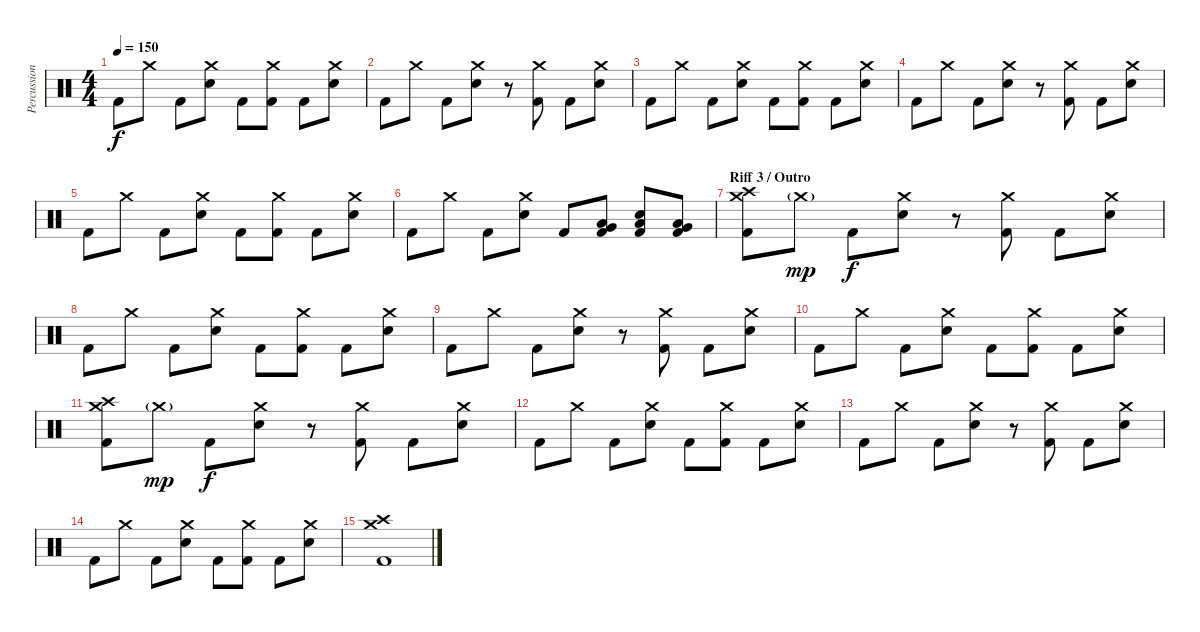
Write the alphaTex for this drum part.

\track ("Percussion" "Percussion") {instrument percussion}
\staff {score}
\articulation defaults
\ts (4 4)
\tempo 150
\clef neutral
\ks c "Kick (hit) 2".8{dy f} "Crash medium (hit)".8 "Kick (hit) 2".8
("Crash medium (hit)" "Electric Snare (hit)").8 "Kick (hit) 2".8 ("Crash medium (hit)" "Kick (hit) 2").8 "Kick (hit) 2".8 ("Crash medium (hit)" "Electric Snare (hit)").8 |
"Kick (hit) 2".8 "Crash medium (hit)".8 "Kick (hit) 2".8 ("Crash medium (hit)" "Electric Snare (hit)").8 r.8 ("Crash medium (hit)" "Kick (hit) 2").8 "Kick (hit) 2".8 ("Crash medium (hit)" "Electric Snare (hit)").8 |
"Kick (hit) 2".8 "Crash medium (hit)".8 "Kick (hit) 2".8 ("Crash medium (hit)" "Electric Snare (hit)").8 "Kick (hit) 2".8 ("Crash medium (hit)" "Kick (hit) 2").8 "Kick (hit) 2".8 ("Crash medium (hit)" "Electric Snare (hit)").8 |
"Kick (hit) 2".8 "Crash medium (hit)".8 "Kick (hit) 2".8 ("Crash medium (hit)" "Electric Snare (hit)").8 r.8 ("Crash medium (hit)" "Kick (hit) 2").8 "Kick (hit) 2".8 ("Crash medium (hit)" "Electric Snare (hit)").8 |
"Kick (hit) 2".8 "Crash medium (hit)".8 "Kick (hit) 2".8 ("Crash medium (hit)" "Electric Snare (hit)").8 "Kick (hit) 2".8 ("Crash medium (hit)" "Kick (hit) 2").8 "Kick (hit) 2".8 ("Crash medium (hit)" "Electric Snare (hit)").8 |
"Kick (hit) 2".8 "Crash medium (hit)".8 "Kick (hit) 2".8 ("Crash medium (hit)" "Electric Snare (hit)").8 "Kick (hit) 2".8 ("Very Low Tom (hit)" "Low Floor Tom (hit)" "Kick (hit) 2").8 ("Electric Snare (hit)" "Low Floor Tom (hit)" "Kick (hit) 2").8 ("Very Low Tom (hit)" "Low Floor Tom (hit)" "Kick (hit) 2").8 |
\section ("" "Riff 3 / Outro")
("Crash medium (hit)" "Crash high (hit)" "Kick (hit) 2").8 "Crash medium (hit)"{g}.8{dy mp} "Kick (hit) 2".8{dy f} ("Crash medium (hit)" "Electric Snare (hit)").8 r.8 ("Crash medium (hit)" "Kick (hit) 2").8 "Kick (hit) 2".8 ("Crash medium (hit)" "Electric Snare (hit)").8 |
"Kick (hit) 2".8 "Crash medium (hit)".8 "Kick (hit) 2".8 ("Crash medium (hit)" "Electric Snare (hit)").8 "Kick (hit) 2".8 ("Crash medium (hit)" "Kick (hit) 2").8 "Kick (hit) 2".8 ("Crash medium (hit)" "Electric Snare (hit)").8 |
"Kick (hit) 2".8 "Crash medium (hit)".8 "Kick (hit) 2".8 ("Crash medium (hit)" "Electric Snare (hit)").8 r.8 ("Crash medium (hit)" "Kick (hit) 2").8 "Kick (hit) 2".8 ("Crash medium (hit)" "Electric Snare (hit)").8 |
"Kick (hit) 2".8 "Crash medium (hit)".8 "Kick (hit) 2".8 ("Crash medium (hit)" "Electric Snare (hit)").8 "Kick (hit) 2".8 ("Crash medium (hit)" "Kick (hit) 2").8 "Kick (hit) 2".8 ("Crash medium (hit)" "Electric Snare (hit)").8 |
("Crash medium (hit)" "Crash high (hit)" "Kick (hit) 2").8 "Crash medium (hit)"{g}.8{dy mp} "Kick (hit) 2".8{dy f} ("Crash medium (hit)" "Electric Snare (hit)").8 r.8 ("Crash medium (hit)" "Kick (hit) 2").8 "Kick (hit) 2".8 ("Crash medium (hit)" "Electric Snare (hit)").8 |
"Kick (hit) 2".8 "Crash medium (hit)".8 "Kick (hit) 2".8 ("Crash medium (hit)" "Electric Snare (hit)").8 "Kick (hit) 2".8 ("Crash medium (hit)" "Kick (hit) 2").8 "Kick (hit) 2".8 ("Crash medium (hit)" "Electric Snare (hit)").8 |
"Kick (hit) 2".8 "Crash medium (hit)".8 "Kick (hit) 2".8 ("Crash medium (hit)" "Electric Snare (hit)").8 r.8 ("Crash medium (hit)" "Kick (hit) 2").8 "Kick (hit) 2".8 ("Crash medium (hit)" "Electric Snare (hit)").8 |
"Kick (hit) 2".8 "Crash medium (hit)".8 "Kick (hit) 2".8 ("Crash medium (hit)" "Electric Snare (hit)").8 "Kick (hit) 2".8 ("Crash medium (hit)" "Kick (hit) 2").8 "Kick (hit) 2".8 ("Crash medium (hit)" "Electric Snare (hit)").8 |
("Crash medium (hit)" "Crash high (hit)" "Kick (hit) 2").1
